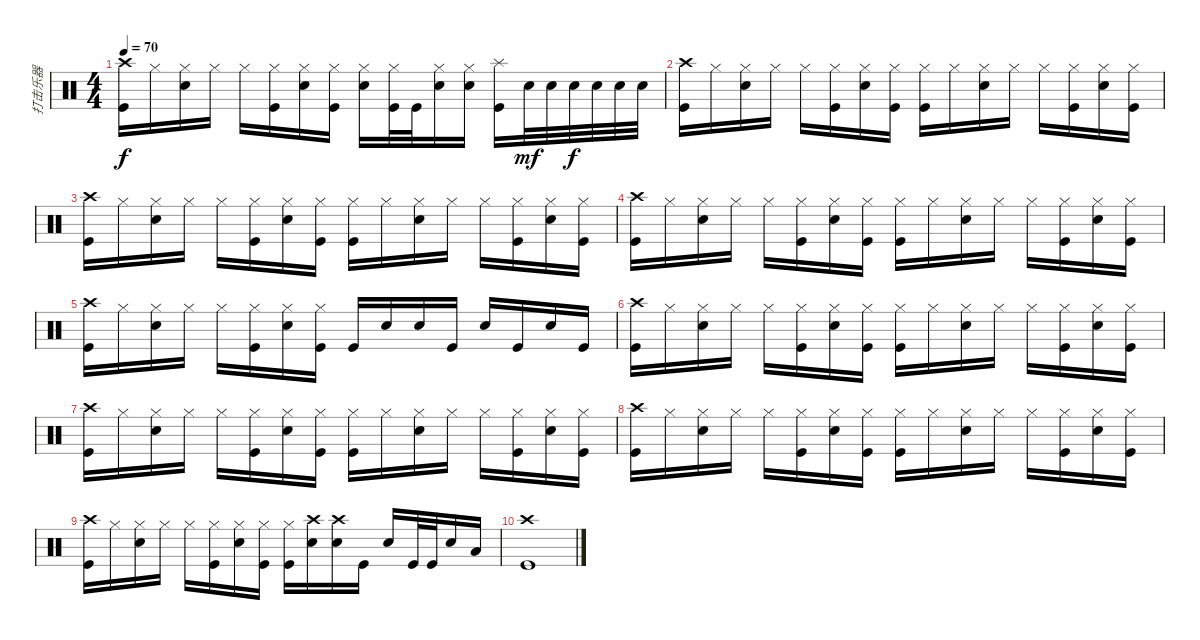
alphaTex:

\track ("打击乐器" "打击乐器") {instrument percussion}
\staff {score}
\articulation defaults
\ts (4 4)
\tempo 70
\clef neutral
\ks c
("Crash high (hit)" "Kick (hit)").16{dy f} "Hi-Hat (closed)".16 ("Hi-Hat (closed)" "Electric Snare (hit)").16 "Hi-Hat (closed)".16 "Hi-Hat (closed)".16 ("Hi-Hat (closed)" "Kick (hit)").16 ("Hi-Hat (closed)" "Electric Snare (hit)").16 ("Hi-Hat (closed)" "Kick (hit)").16 ("Hi-Hat (closed)" "Electric Snare (hit)").16 ("Hi-Hat (closed)" "Kick (hit)").32 "Kick (hit)".32 ("Hi-Hat (closed)" "Electric Snare (hit)").16 ("Hi-Hat (closed)" "Electric Snare (hit)").16 ("Splash (hit)" "Kick (hit)").16 "Electric Snare (hit)".32{dy mf} "Electric Snare (hit)".32 "Electric Snare (hit)".32{dy f} "Electric Snare (hit)".32 "Electric Snare (hit)".32 "Electric Snare (hit)".32 |
("Crash high (hit)" "Kick (hit)").16 "Hi-Hat (closed)".16 ("Hi-Hat (closed)" "Electric Snare (hit)").16 "Hi-Hat (closed)".16 "Hi-Hat (closed)".16 ("Hi-Hat (closed)" "Kick (hit)").16 ("Hi-Hat (closed)" "Electric Snare (hit)").16 ("Hi-Hat (closed)" "Kick (hit)").16 ("Hi-Hat (closed)" "Kick (hit)").16 "Hi-Hat (closed)".16 ("Hi-Hat (closed)" "Electric Snare (hit)").16 "Hi-Hat (closed)".16 "Hi-Hat (closed)".16 ("Hi-Hat (closed)" "Kick (hit)").16 ("Hi-Hat (closed)" "Electric Snare (hit)").16 ("Hi-Hat (closed)" "Kick (hit)").16 |
("Crash high (hit)" "Kick (hit)").16 "Hi-Hat (closed)".16 ("Hi-Hat (closed)" "Electric Snare (hit)").16 "Hi-Hat (closed)".16 "Hi-Hat (closed)".16 ("Hi-Hat (closed)" "Kick (hit)").16 ("Hi-Hat (closed)" "Electric Snare (hit)").16 ("Hi-Hat (closed)" "Kick (hit)").16 ("Hi-Hat (closed)" "Kick (hit)").16 "Hi-Hat (closed)".16 ("Hi-Hat (closed)" "Electric Snare (hit)").16 "Hi-Hat (closed)".16 "Hi-Hat (closed)".16 ("Hi-Hat (closed)" "Kick (hit)").16 ("Hi-Hat (closed)" "Electric Snare (hit)").16 ("Hi-Hat (closed)" "Kick (hit)").16 |
("Crash high (hit)" "Kick (hit)").16 "Hi-Hat (closed)".16 ("Hi-Hat (closed)" "Electric Snare (hit)").16 "Hi-Hat (closed)".16 "Hi-Hat (closed)".16 ("Hi-Hat (closed)" "Kick (hit)").16 ("Hi-Hat (closed)" "Electric Snare (hit)").16 ("Hi-Hat (closed)" "Kick (hit)").16 ("Hi-Hat (closed)" "Kick (hit)").16 "Hi-Hat (closed)".16 ("Hi-Hat (closed)" "Electric Snare (hit)").16 "Hi-Hat (closed)".16 "Hi-Hat (closed)".16 ("Hi-Hat (closed)" "Kick (hit)").16 ("Hi-Hat (closed)" "Electric Snare (hit)").16 ("Hi-Hat (closed)" "Kick (hit)").16 |
("Crash high (hit)" "Kick (hit)").16 "Hi-Hat (closed)".16 ("Hi-Hat (closed)" "Electric Snare (hit)").16 "Hi-Hat (closed)".16 "Hi-Hat (closed)".16 ("Hi-Hat (closed)" "Kick (hit)").16 ("Hi-Hat (closed)" "Electric Snare (hit)").16 ("Hi-Hat (closed)" "Kick (hit)").16 "Kick (hit)".16 "Electric Snare (hit)".16 "Electric Snare (hit)".16 "Kick (hit)".16 "Electric Snare (hit)".16 "Kick (hit)".16 "Electric Snare (hit)".16 "Kick (hit)".16 |
("Crash high (hit)" "Kick (hit)").16 "Hi-Hat (closed)".16 ("Hi-Hat (closed)" "Electric Snare (hit)").16 "Hi-Hat (closed)".16 "Hi-Hat (closed)".16 ("Hi-Hat (closed)" "Kick (hit)").16 ("Hi-Hat (closed)" "Electric Snare (hit)").16 ("Hi-Hat (closed)" "Kick (hit)").16 ("Hi-Hat (closed)" "Kick (hit)").16 "Hi-Hat (closed)".16 ("Hi-Hat (closed)" "Electric Snare (hit)").16 "Hi-Hat (closed)".16 "Hi-Hat (closed)".16 ("Hi-Hat (closed)" "Kick (hit)").16 ("Hi-Hat (closed)" "Electric Snare (hit)").16 ("Hi-Hat (closed)" "Kick (hit)").16 |
("Crash high (hit)" "Kick (hit)").16 "Hi-Hat (closed)".16 ("Hi-Hat (closed)" "Electric Snare (hit)").16 "Hi-Hat (closed)".16 "Hi-Hat (closed)".16 ("Hi-Hat (closed)" "Kick (hit)").16 ("Hi-Hat (closed)" "Electric Snare (hit)").16 ("Hi-Hat (closed)" "Kick (hit)").16 ("Hi-Hat (closed)" "Kick (hit)").16 "Hi-Hat (closed)".16 ("Hi-Hat (closed)" "Electric Snare (hit)").16 "Hi-Hat (closed)".16 "Hi-Hat (closed)".16 ("Hi-Hat (closed)" "Kick (hit)").16 ("Hi-Hat (closed)" "Electric Snare (hit)").16 ("Hi-Hat (closed)" "Kick (hit)").16 |
("Crash high (hit)" "Kick (hit)").16 "Hi-Hat (closed)".16 ("Hi-Hat (closed)" "Electric Snare (hit)").16 "Hi-Hat (closed)".16 "Hi-Hat (closed)".16 ("Hi-Hat (closed)" "Kick (hit)").16 ("Hi-Hat (closed)" "Electric Snare (hit)").16 ("Hi-Hat (closed)" "Kick (hit)").16 ("Hi-Hat (closed)" "Kick (hit)").16 "Hi-Hat (closed)".16 ("Hi-Hat (closed)" "Electric Snare (hit)").16 "Hi-Hat (closed)".16 "Hi-Hat (closed)".16 ("Hi-Hat (closed)" "Kick (hit)").16 ("Hi-Hat (closed)" "Electric Snare (hit)").16 ("Hi-Hat (closed)" "Kick (hit)").16 |
("Crash high (hit)" "Kick (hit)").16 "Hi-Hat (closed)".16 ("Hi-Hat (closed)" "Electric Snare (hit)").16 "Hi-Hat (closed)".16 "Hi-Hat (closed)".16 ("Hi-Hat (closed)" "Kick (hit)").16 ("Hi-Hat (closed)" "Electric Snare (hit)").16 ("Hi-Hat (closed)" "Kick (hit)").16 ("Hi-Hat (closed)" "Kick (hit)").16 ("Crash high (hit)" "Electric Snare (hit)").16 ("Crash high (hit)" "Electric Snare (hit)").16 "Kick (hit)".16 "Electric Snare (hit)".16 "Kick (hit)".32 "Kick (hit)".32 "Electric Snare (hit)".16 "Low Tom (hit)".16 |
("Crash high (hit)" "Kick (hit)").1
